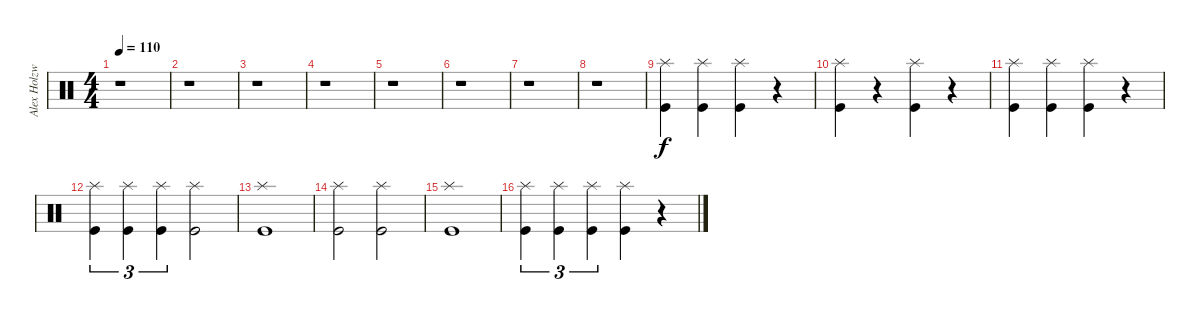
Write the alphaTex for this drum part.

\track ("Alex Holzwarth" "Alex Holzw") {instrument percussion}
\staff {score}
\articulation defaults
\ts (4 4)
\tempo 110
\clef neutral
\ks c
r.1{dy f} |
r.1 |
r.1 |
r.1 |
r.1 |
r.1 |
r.1 |
r.1 |
("Splash (hit)" "Kick (hit)").4 ("Splash (hit)" "Kick (hit)").4 ("Splash (hit)" "Kick (hit)").4 r.4 |
("Splash (hit)" "Kick (hit)").4 r.4 ("Splash (hit)" "Kick (hit)").4 r.4 |
("Splash (hit)" "Kick (hit)").4 ("Splash (hit)" "Kick (hit)").4 ("Splash (hit)" "Kick (hit)").4 r.4 |
("Splash (hit)" "Kick (hit)").4{tu (3 2)} ("Splash (hit)" "Kick (hit)").4{tu (3 2)} ("Splash (hit)" "Kick (hit)").4{tu (3 2)} ("Splash (hit)" "Kick (hit)").2 |
("Splash (hit)" "Kick (hit)").1 |
("Splash (hit)" "Kick (hit)").2 ("Splash (hit)" "Kick (hit)").2 |
("Splash (hit)" "Kick (hit)").1 |
("Splash (hit)" "Kick (hit)").4{tu (3 2)} ("Splash (hit)" "Kick (hit)").4{tu (3 2)} ("Splash (hit)" "Kick (hit)").4{tu (3 2)} ("Splash (hit)" "Kick (hit)").4 r.4{volume 0}
